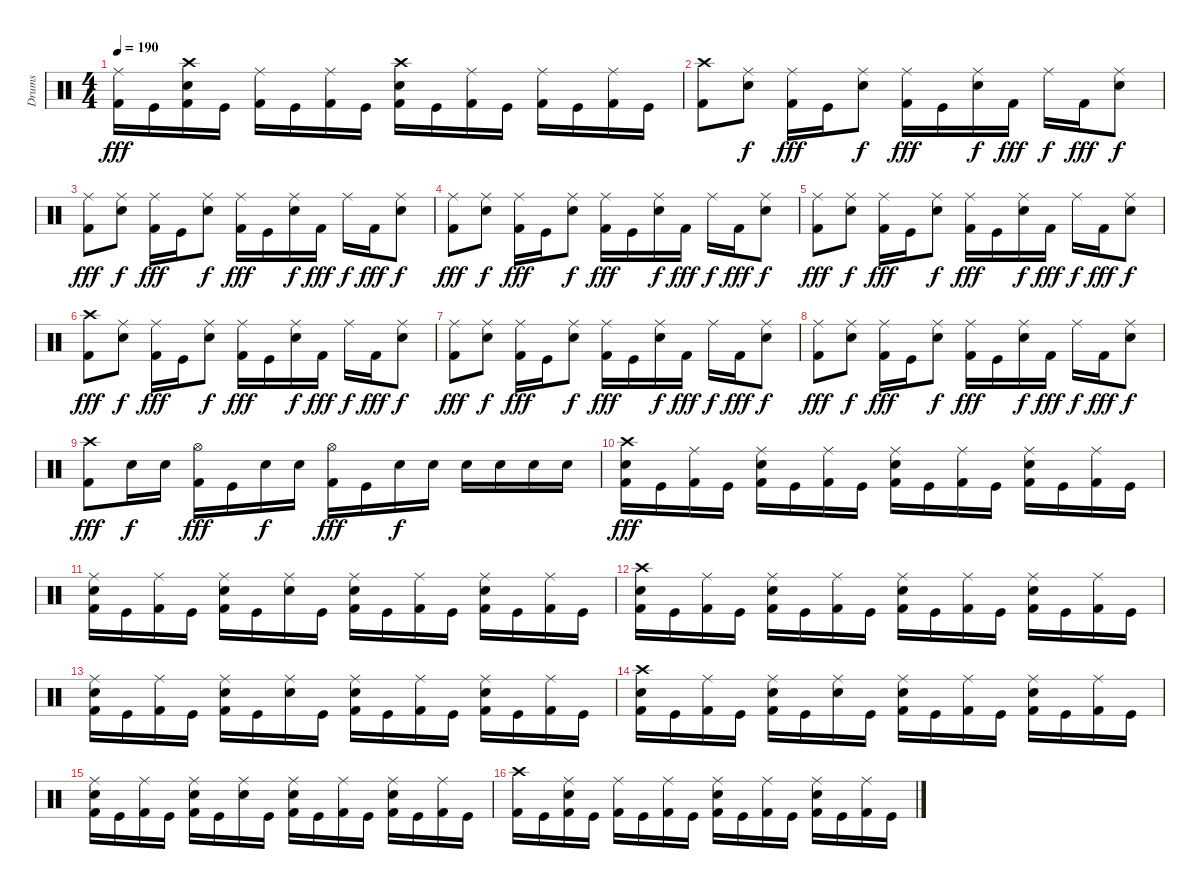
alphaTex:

\track ("Drums" "Drums") {instrument percussion}
\staff {score}
\articulation defaults
\ts (4 4)
\tempo 190
\clef neutral
\ks c
("Ride (middle)" "Kick (hit) 2").16{dy fff} "Kick (hit)".16 ("Crash high (hit)" "Electric Snare (hit)" "Kick (hit) 2").16 "Kick (hit)".16 ("Ride (middle)" "Kick (hit) 2").16 "Kick (hit)".16 ("Ride (middle)" "Kick (hit) 2").16 "Kick (hit)".16 ("Crash high (hit)" "Electric Snare (hit)" "Kick (hit) 2").16 "Kick (hit)".16 ("Ride (middle)" "Kick (hit) 2").16 "Kick (hit)".16 ("Ride (middle)" "Kick (hit) 2").16 "Kick (hit)".16 ("Ride (middle)" "Kick (hit) 2").16 "Kick (hit)".16 |
("Crash high (hit)" "Kick (hit) 2").8 ("Ride (middle)" "Electric Snare (hit)").8{dy f} ("Ride (middle)" "Kick (hit) 2").16{dy fff} "Kick (hit)".16 ("Ride (middle)" "Electric Snare (hit)").8{dy f} ("Ride (middle)" "Kick (hit) 2").16{dy fff} "Kick (hit)".16 ("Ride (middle)" "Electric Snare (hit)").16{dy f} "Kick (hit) 2".16{dy fff} "Ride (middle)".16{dy f} "Kick (hit) 2".16{dy fff} ("Ride (middle)" "Electric Snare (hit)").8{dy f} |
("Ride (middle)" "Kick (hit) 2").8{dy fff} ("Ride (middle)" "Electric Snare (hit)").8{dy f} ("Ride (middle)" "Kick (hit) 2").16{dy fff} "Kick (hit)".16 ("Ride (middle)" "Electric Snare (hit)").8{dy f} ("Ride (middle)" "Kick (hit) 2").16{dy fff} "Kick (hit)".16 ("Ride (middle)" "Electric Snare (hit)").16{dy f} "Kick (hit) 2".16{dy fff} "Ride (middle)".16{dy f} "Kick (hit) 2".16{dy fff} ("Ride (middle)" "Electric Snare (hit)").8{dy f} |
("Ride (middle)" "Kick (hit) 2").8{dy fff} ("Ride (middle)" "Electric Snare (hit)").8{dy f} ("Ride (middle)" "Kick (hit) 2").16{dy fff} "Kick (hit)".16 ("Ride (middle)" "Electric Snare (hit)").8{dy f} ("Ride (middle)" "Kick (hit) 2").16{dy fff} "Kick (hit)".16 ("Ride (middle)" "Electric Snare (hit)").16{dy f} "Kick (hit) 2".16{dy fff} "Ride (middle)".16{dy f} "Kick (hit) 2".16{dy fff} ("Ride (middle)" "Electric Snare (hit)").8{dy f} |
("Ride (middle)" "Kick (hit) 2").8{dy fff} ("Ride (middle)" "Electric Snare (hit)").8{dy f} ("Ride (middle)" "Kick (hit) 2").16{dy fff} "Kick (hit)".16 ("Ride (middle)" "Electric Snare (hit)").8{dy f} ("Ride (middle)" "Kick (hit) 2").16{dy fff} "Kick (hit)".16 ("Ride (middle)" "Electric Snare (hit)").16{dy f} "Kick (hit) 2".16{dy fff} "Ride (middle)".16{dy f} "Kick (hit) 2".16{dy fff} ("Ride (middle)" "Electric Snare (hit)").8{dy f} |
("Crash high (hit)" "Kick (hit) 2").8{dy fff} ("Ride (middle)" "Electric Snare (hit)").8{dy f} ("Ride (middle)" "Kick (hit) 2").16{dy fff} "Kick (hit)".16 ("Ride (middle)" "Electric Snare (hit)").8{dy f} ("Ride (middle)" "Kick (hit) 2").16{dy fff} "Kick (hit)".16 ("Ride (middle)" "Electric Snare (hit)").16{dy f} "Kick (hit) 2".16{dy fff} "Ride (middle)".16{dy f} "Kick (hit) 2".16{dy fff} ("Ride (middle)" "Electric Snare (hit)").8{dy f} |
("Ride (middle)" "Kick (hit) 2").8{dy fff} ("Ride (middle)" "Electric Snare (hit)").8{dy f} ("Ride (middle)" "Kick (hit) 2").16{dy fff} "Kick (hit)".16 ("Ride (middle)" "Electric Snare (hit)").8{dy f} ("Ride (middle)" "Kick (hit) 2").16{dy fff} "Kick (hit)".16 ("Ride (middle)" "Electric Snare (hit)").16{dy f} "Kick (hit) 2".16{dy fff} "Ride (middle)".16{dy f} "Kick (hit) 2".16{dy fff} ("Ride (middle)" "Electric Snare (hit)").8{dy f} |
("Ride (middle)" "Kick (hit) 2").8{dy fff} ("Ride (middle)" "Electric Snare (hit)").8{dy f} ("Ride (middle)" "Kick (hit) 2").16{dy fff} "Kick (hit)".16 ("Ride (middle)" "Electric Snare (hit)").8{dy f} ("Ride (middle)" "Kick (hit) 2").16{dy fff} "Kick (hit)".16 ("Ride (middle)" "Electric Snare (hit)").16{dy f} "Kick (hit) 2".16{dy fff} "Ride (middle)".16{dy f} "Kick (hit) 2".16{dy fff} ("Ride (middle)" "Electric Snare (hit)").8{dy f} |
("Crash high (hit)" "Kick (hit) 2").8{dy fff} "Electric Snare (hit)".16{dy f} "Electric Snare (hit)".16 ("Hi-Hat (open)" "Kick (hit) 2").16{dy fff} "Kick (hit)".16 "Electric Snare (hit)".16{dy f} "Electric Snare (hit)".16 ("Hi-Hat (open)" "Kick (hit) 2").16{dy fff} "Kick (hit)".16 "Electric Snare (hit)".16{dy f} "Electric Snare (hit)".16 "Electric Snare (hit)".16 "Electric Snare (hit)".16 "Electric Snare (hit)".16 "Electric Snare (hit)".16 |
("Crash high (hit)" "Electric Snare (hit)" "Kick (hit) 2").16{dy fff} "Kick (hit)".16 ("Ride (middle)" "Kick (hit) 2").16 "Kick (hit)".16 ("Ride (middle)" "Electric Snare (hit)" "Kick (hit) 2").16 "Kick (hit)".16 ("Ride (middle)" "Kick (hit) 2").16 "Kick (hit)".16 ("Ride (middle)" "Electric Snare (hit)" "Kick (hit) 2").16 "Kick (hit)".16 ("Ride (middle)" "Kick (hit) 2").16 "Kick (hit)".16 ("Ride (middle)" "Electric Snare (hit)" "Kick (hit) 2").16 "Kick (hit)".16 ("Ride (middle)" "Kick (hit) 2").16 "Kick (hit)".16 |
("Ride (middle)" "Electric Snare (hit)" "Kick (hit) 2").16 "Kick (hit)".16 ("Ride (middle)" "Kick (hit) 2").16 "Kick (hit)".16 ("Ride (middle)" "Electric Snare (hit)" "Kick (hit) 2").16 "Kick (hit)".16 ("Ride (middle)" "Snare (hit)").16 "Kick (hit)".16 ("Ride (middle)" "Electric Snare (hit)" "Kick (hit) 2").16 "Kick (hit)".16 ("Ride (middle)" "Kick (hit) 2").16 "Kick (hit)".16 ("Ride (middle)" "Electric Snare (hit)" "Kick (hit) 2").16 "Kick (hit)".16 ("Ride (middle)" "Kick (hit) 2").16 "Kick (hit)".16 |
("Crash high (hit)" "Electric Snare (hit)" "Kick (hit) 2").16 "Kick (hit)".16 ("Ride (middle)" "Kick (hit) 2").16 "Kick (hit)".16 ("Ride (middle)" "Electric Snare (hit)" "Kick (hit) 2").16 "Kick (hit)".16 ("Ride (middle)" "Kick (hit) 2").16 "Kick (hit)".16 ("Ride (middle)" "Electric Snare (hit)" "Kick (hit) 2").16 "Kick (hit)".16 ("Ride (middle)" "Kick (hit) 2").16 "Kick (hit)".16 ("Ride (middle)" "Electric Snare (hit)" "Kick (hit) 2").16 "Kick (hit)".16 ("Ride (middle)" "Kick (hit) 2").16 "Kick (hit)".16 |
("Ride (middle)" "Electric Snare (hit)" "Kick (hit) 2").16 "Kick (hit)".16 ("Ride (middle)" "Kick (hit) 2").16 "Kick (hit)".16 ("Ride (middle)" "Electric Snare (hit)" "Kick (hit) 2").16 "Kick (hit)".16 ("Ride (middle)" "Snare (hit)").16 "Kick (hit)".16 ("Ride (middle)" "Electric Snare (hit)" "Kick (hit) 2").16 "Kick (hit)".16 ("Ride (middle)" "Kick (hit) 2").16 "Kick (hit)".16 ("Ride (middle)" "Electric Snare (hit)" "Kick (hit) 2").16 "Kick (hit)".16 ("Ride (middle)" "Kick (hit) 2").16 "Kick (hit)".16 |
("Crash high (hit)" "Electric Snare (hit)" "Kick (hit) 2").16 "Kick (hit)".16 ("Ride (middle)" "Kick (hit) 2").16 "Kick (hit)".16 ("Ride (middle)" "Electric Snare (hit)" "Kick (hit) 2").16 "Kick (hit)".16 ("Ride (middle)" "Snare (hit)").16 "Kick (hit)".16 ("Ride (middle)" "Electric Snare (hit)" "Kick (hit) 2").16 "Kick (hit)".16 ("Ride (middle)" "Kick (hit) 2").16 "Kick (hit)".16 ("Ride (middle)" "Electric Snare (hit)" "Kick (hit) 2").16 "Kick (hit)".16 ("Ride (middle)" "Kick (hit) 2").16 "Kick (hit)".16 |
("Ride (middle)" "Electric Snare (hit)" "Kick (hit) 2").16 "Kick (hit)".16 ("Ride (middle)" "Kick (hit) 2").16 "Kick (hit)".16 ("Ride (middle)" "Electric Snare (hit)" "Kick (hit) 2").16 "Kick (hit)".16 ("Ride (middle)" "Snare (hit)").16 "Kick (hit)".16 ("Ride (middle)" "Electric Snare (hit)" "Kick (hit) 2").16 "Kick (hit)".16 ("Ride (middle)" "Kick (hit) 2").16 "Kick (hit)".16 ("Ride (middle)" "Electric Snare (hit)" "Kick (hit) 2").16 "Kick (hit)".16 ("Ride (middle)" "Kick (hit) 2").16 "Kick (hit)".16 |
("Crash high (hit)" "Kick (hit) 2").16 "Kick (hit)".16 ("Ride (middle)" "Electric Snare (hit)" "Kick (hit) 2").16 "Kick (hit)".16 ("Ride (middle)" "Kick (hit) 2").16 "Kick (hit)".16 ("Ride (middle)" "Kick (hit) 2").16 "Kick (hit)".16 ("Ride (middle)" "Electric Snare (hit)" "Kick (hit) 2").16 "Kick (hit)".16 ("Ride (middle)" "Kick (hit) 2").16 "Kick (hit)".16 ("Ride (middle)" "Electric Snare (hit)" "Kick (hit) 2").16 "Kick (hit)".16 ("Ride (middle)" "Kick (hit) 2").16 "Kick (hit)".16
